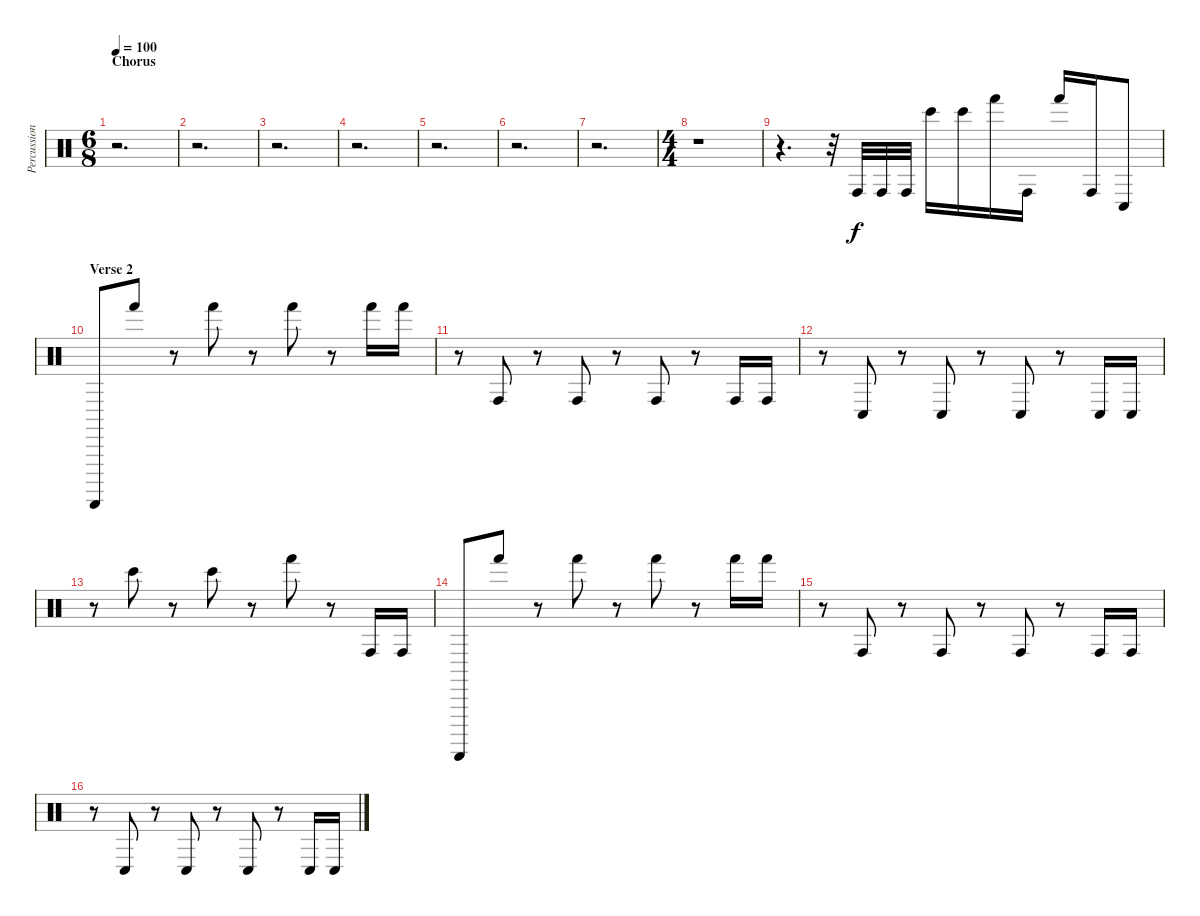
\track ("Percussion" "Percussion") {instrument percussion}
\staff {score}
\articulation defaults
\ts (6 8)
\section ("" "Chorus")
\tempo 100
\clef neutral
\ks c
r.2{d dy f} |
r.2{d} |
r.2{d} |
r.2{d} |
r.2{d} |
r.2{d} |
r.2{d} |
\ts (4 4)
r.1 |
r.4{d} r.32 "Conga high (hit)".32 "Conga high (hit)".32 "Conga high (hit)".32 "Bongo High (hit)".16 "Bongo High (hit)".16 "Hand (hit)".16 "Conga high (hit)".16 "Hand (hit)".16 "Conga high (hit)".16 "Conga low (hit)".8 |
\section ("" "Verse 2")
"Guiro (scrap-return)".8 "Hand (hit)".8 r.8 "Hand (hit)".8 r.8 "Hand (hit)".8 r.8 "Hand (hit)".16 "Hand (hit)".16 |
r.8 "Conga high (hit)".8 r.8 "Conga high (hit)".8 r.8 "Conga high (hit)".8 r.8 "Conga high (hit)".16 "Conga high (hit)".16 |
r.8 "Conga low (hit)".8 r.8 "Conga low (hit)".8 r.8 "Conga low (hit)".8 r.8 "Conga low (hit)".16 "Conga low (hit)".16 |
r.8 "Bongo High (hit)".8 r.8 "Bongo High (hit)".8 r.8 "Hand (hit)".8 r.8 "Conga high (hit)".16 "Conga high (hit)".16 |
"Guiro (scrap-return)".8 "Hand (hit)".8 r.8 "Hand (hit)".8 r.8 "Hand (hit)".8 r.8 "Hand (hit)".16 "Hand (hit)".16 |
r.8 "Conga high (hit)".8 r.8 "Conga high (hit)".8 r.8 "Conga high (hit)".8 r.8 "Conga high (hit)".16 "Conga high (hit)".16 |
r.8 "Conga low (hit)".8 r.8 "Conga low (hit)".8 r.8 "Conga low (hit)".8 r.8 "Conga low (hit)".16 "Conga low (hit)".16
